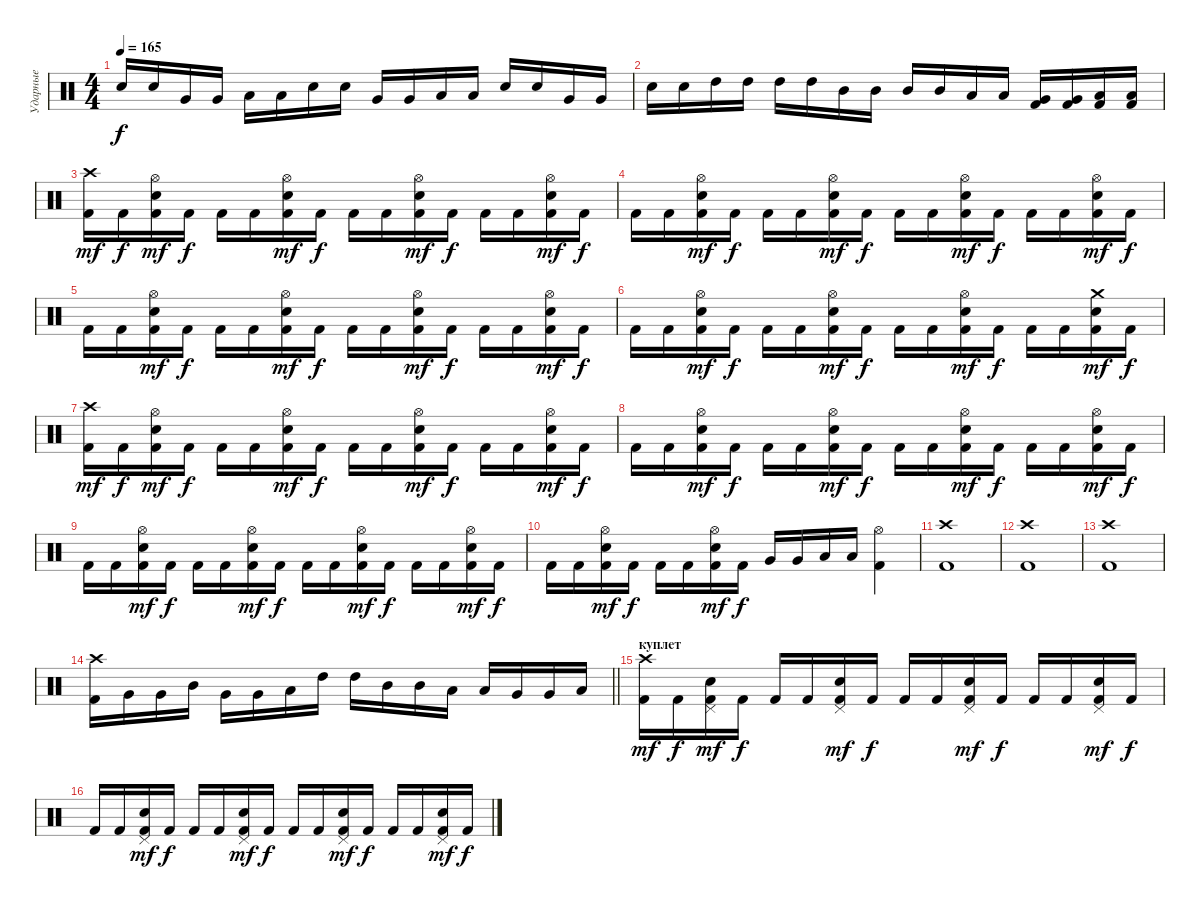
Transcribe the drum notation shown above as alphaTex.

\track ("Ударные" "Ударные") {instrument percussion}
\staff {score}
\articulation defaults
\ts (4 4)
\tempo 165
\clef neutral
\ks c "Electric Snare (hit)".16{dy f} "Electric Snare (hit)".16 "Very Low Tom (hit)".16 "Very Low Tom (hit)".16 "Low Floor Tom (hit)".16 "Low Floor Tom (hit)".16 "Electric Snare (hit)".16 "Electric Snare (hit)".16 "Very Low Tom (hit)".16 "Very Low Tom (hit)".16 "Low Floor Tom (hit)".16 "Low Floor Tom (hit)".16 "Electric Snare (hit)".16 "Electric Snare (hit)".16 "Very Low Tom (hit)".16 "Very Low Tom (hit)".16
|
"Electric Snare (hit)".16 "Electric Snare (hit)".16 "High Tom (hit)".16 "High Tom (hit)".16 "High Tom (hit)".16 "High Tom (hit)".16 "Mid Tom (hit)".16 "Mid Tom (hit)".16 "Mid Tom (hit)".16 "Mid Tom (hit)".16 "Low Tom (hit)".16 "Low Tom (hit)".16 ("Kick (hit) 2" "Very Low Tom (hit)").16 ("Kick (hit) 2" "Very Low Tom (hit)").16 ("Kick (hit) 2" "Low Floor Tom (hit)").16 ("Kick (hit) 2" "Low Floor Tom (hit)").16 |
("Kick (hit) 2" "Crash high (hit)").16{dy mf} "Kick (hit) 2".16{dy f} ("Kick (hit) 2" "Electric Snare (hit)" "Hi-Hat (open)").16{dy mf} "Kick (hit) 2".16{dy f} "Kick (hit) 2".16 "Kick (hit) 2".16 ("Kick (hit) 2" "Electric Snare (hit)" "Hi-Hat (open)").16{dy mf} "Kick (hit) 2".16{dy f} "Kick (hit) 2".16 "Kick (hit) 2".16 ("Kick (hit) 2" "Electric Snare (hit)" "Hi-Hat (open)").16{dy mf} "Kick (hit) 2".16{dy f} "Kick (hit) 2".16 "Kick (hit) 2".16 ("Kick (hit) 2" "Electric Snare (hit)" "Hi-Hat (open)").16{dy mf} "Kick (hit) 2".16{dy f} |
"Kick (hit) 2".16 "Kick (hit) 2".16 ("Kick (hit) 2" "Electric Snare (hit)" "Hi-Hat (open)").16{dy mf} "Kick (hit) 2".16{dy f} "Kick (hit) 2".16 "Kick (hit) 2".16 ("Kick (hit) 2" "Electric Snare (hit)" "Hi-Hat (open)").16{dy mf} "Kick (hit) 2".16{dy f} "Kick (hit) 2".16 "Kick (hit) 2".16 ("Kick (hit) 2" "Electric Snare (hit)" "Hi-Hat (open)").16{dy mf} "Kick (hit) 2".16{dy f} "Kick (hit) 2".16 "Kick (hit) 2".16 ("Kick (hit) 2" "Electric Snare (hit)" "Hi-Hat (open)").16{dy mf} "Kick (hit) 2".16{dy f} |
"Kick (hit) 2".16 "Kick (hit) 2".16 ("Kick (hit) 2" "Electric Snare (hit)" "Hi-Hat (open)").16{dy mf} "Kick (hit) 2".16{dy f} "Kick (hit) 2".16 "Kick (hit) 2".16 ("Kick (hit) 2" "Electric Snare (hit)" "Hi-Hat (open)").16{dy mf} "Kick (hit) 2".16{dy f} "Kick (hit) 2".16 "Kick (hit) 2".16 ("Kick (hit) 2" "Electric Snare (hit)" "Hi-Hat (open)").16{dy mf} "Kick (hit) 2".16{dy f} "Kick (hit) 2".16 "Kick (hit) 2".16 ("Kick (hit) 2" "Electric Snare (hit)" "Hi-Hat (open)").16{dy mf} "Kick (hit) 2".16{dy f} |
"Kick (hit) 2".16 "Kick (hit) 2".16 ("Kick (hit) 2" "Electric Snare (hit)" "Hi-Hat (open)").16{dy mf} "Kick (hit) 2".16{dy f} "Kick (hit) 2".16 "Kick (hit) 2".16 ("Kick (hit) 2" "Electric Snare (hit)" "Hi-Hat (open)").16{dy mf} "Kick (hit) 2".16{dy f} "Kick (hit) 2".16 "Kick (hit) 2".16 ("Kick (hit) 2" "Electric Snare (hit)" "Hi-Hat (open)").16{dy mf} "Kick (hit) 2".16{dy f} "Kick (hit) 2".16 "Kick (hit) 2".16 ("Kick (hit) 2" "Electric Snare (hit)" "Crash medium (hit)").16{dy mf} "Kick (hit) 2".16{dy f} |
("Kick (hit) 2" "Crash high (hit)").16{dy mf} "Kick (hit) 2".16{dy f} ("Kick (hit) 2" "Electric Snare (hit)" "Hi-Hat (open)").16{dy mf} "Kick (hit) 2".16{dy f} "Kick (hit) 2".16 "Kick (hit) 2".16 ("Kick (hit) 2" "Electric Snare (hit)" "Hi-Hat (open)").16{dy mf} "Kick (hit) 2".16{dy f} "Kick (hit) 2".16 "Kick (hit) 2".16 ("Kick (hit) 2" "Electric Snare (hit)" "Hi-Hat (open)").16{dy mf} "Kick (hit) 2".16{dy f} "Kick (hit) 2".16 "Kick (hit) 2".16 ("Kick (hit) 2" "Electric Snare (hit)" "Hi-Hat (open)").16{dy mf} "Kick (hit) 2".16{dy f} |
"Kick (hit) 2".16 "Kick (hit) 2".16 ("Kick (hit) 2" "Electric Snare (hit)" "Hi-Hat (open)").16{dy mf} "Kick (hit) 2".16{dy f} "Kick (hit) 2".16 "Kick (hit) 2".16 ("Kick (hit) 2" "Electric Snare (hit)" "Hi-Hat (open)").16{dy mf} "Kick (hit) 2".16{dy f} "Kick (hit) 2".16 "Kick (hit) 2".16 ("Kick (hit) 2" "Electric Snare (hit)" "Hi-Hat (open)").16{dy mf} "Kick (hit) 2".16{dy f} "Kick (hit) 2".16 "Kick (hit) 2".16 ("Kick (hit) 2" "Electric Snare (hit)" "Hi-Hat (open)").16{dy mf} "Kick (hit) 2".16{dy f} |
"Kick (hit) 2".16 "Kick (hit) 2".16 ("Kick (hit) 2" "Electric Snare (hit)" "Hi-Hat (open)").16{dy mf} "Kick (hit) 2".16{dy f} "Kick (hit) 2".16 "Kick (hit) 2".16 ("Kick (hit) 2" "Electric Snare (hit)" "Hi-Hat (open)").16{dy mf} "Kick (hit) 2".16{dy f} "Kick (hit) 2".16 "Kick (hit) 2".16 ("Kick (hit) 2" "Electric Snare (hit)" "Hi-Hat (open)").16{dy mf} "Kick (hit) 2".16{dy f} "Kick (hit) 2".16 "Kick (hit) 2".16 ("Kick (hit) 2" "Electric Snare (hit)" "Hi-Hat (open)").16{dy mf} "Kick (hit) 2".16{dy f} |
"Kick (hit) 2".16 "Kick (hit) 2".16 ("Kick (hit) 2" "Electric Snare (hit)" "Hi-Hat (open)").16{dy mf} "Kick (hit) 2".16{dy f} "Kick (hit) 2".16 "Kick (hit) 2".16 ("Kick (hit) 2" "Electric Snare (hit)" "Hi-Hat (open)").16{dy mf} "Kick (hit) 2".16{dy f} "Very Low Tom (hit)".16 "Very Low Tom (hit)".16 "Low Floor Tom (hit)".16 "Low Floor Tom (hit)".16 ("Kick (hit) 2" "Hi-Hat (open)").4 |
("Kick (hit) 2" "Crash high (hit)").1 |
("Kick (hit) 2" "Crash high (hit)").1 |
("Kick (hit) 2" "Crash high (hit)").1 |
\barLineRight lightlight
("Kick (hit) 2" "Crash high (hit)").16 "Very Low Tom (hit)".16 "Very Low Tom (hit)".16 "Mid Tom (hit)".16 "Very Low Tom (hit)".16 "Very Low Tom (hit)".16 "Low Tom (hit)".16 "High Tom (hit)".16 "High Tom (hit)".16 "Mid Tom (hit)".16 "Mid Tom (hit)".16 "Low Tom (hit)".16 "Low Tom (hit)".16 "Very Low Tom (hit)".16 "Very Low Tom (hit)".16 "Low Floor Tom (hit)".16 |
\section ("" "куплет")
("Kick (hit) 2" "Crash high (hit)").16{dy mf} "Kick (hit) 2".16{dy f} ("Kick (hit) 2" "Electric Snare (hit)" "Pedal Hi-Hat (hit)").16{dy mf} "Kick (hit) 2".16{dy f} "Kick (hit) 2".16 "Kick (hit) 2".16 ("Kick (hit) 2" "Electric Snare (hit)" "Pedal Hi-Hat (hit)").16{dy mf} "Kick (hit) 2".16{dy f} "Kick (hit) 2".16 "Kick (hit) 2".16 ("Kick (hit) 2" "Electric Snare (hit)" "Pedal Hi-Hat (hit)").16{dy mf} "Kick (hit) 2".16{dy f} "Kick (hit) 2".16 "Kick (hit) 2".16 ("Kick (hit) 2" "Electric Snare (hit)" "Pedal Hi-Hat (hit)").16{dy mf} "Kick (hit) 2".16{dy f} |
"Kick (hit) 2".16 "Kick (hit) 2".16 ("Kick (hit) 2" "Electric Snare (hit)" "Pedal Hi-Hat (hit)").16{dy mf} "Kick (hit) 2".16{dy f} "Kick (hit) 2".16 "Kick (hit) 2".16 ("Kick (hit) 2" "Electric Snare (hit)" "Pedal Hi-Hat (hit)").16{dy mf} "Kick (hit) 2".16{dy f} "Kick (hit) 2".16 "Kick (hit) 2".16 ("Kick (hit) 2" "Electric Snare (hit)" "Pedal Hi-Hat (hit)").16{dy mf} "Kick (hit) 2".16{dy f} "Kick (hit) 2".16 "Kick (hit) 2".16 ("Kick (hit) 2" "Electric Snare (hit)" "Pedal Hi-Hat (hit)").16{dy mf} "Kick (hit) 2".16{dy f}
